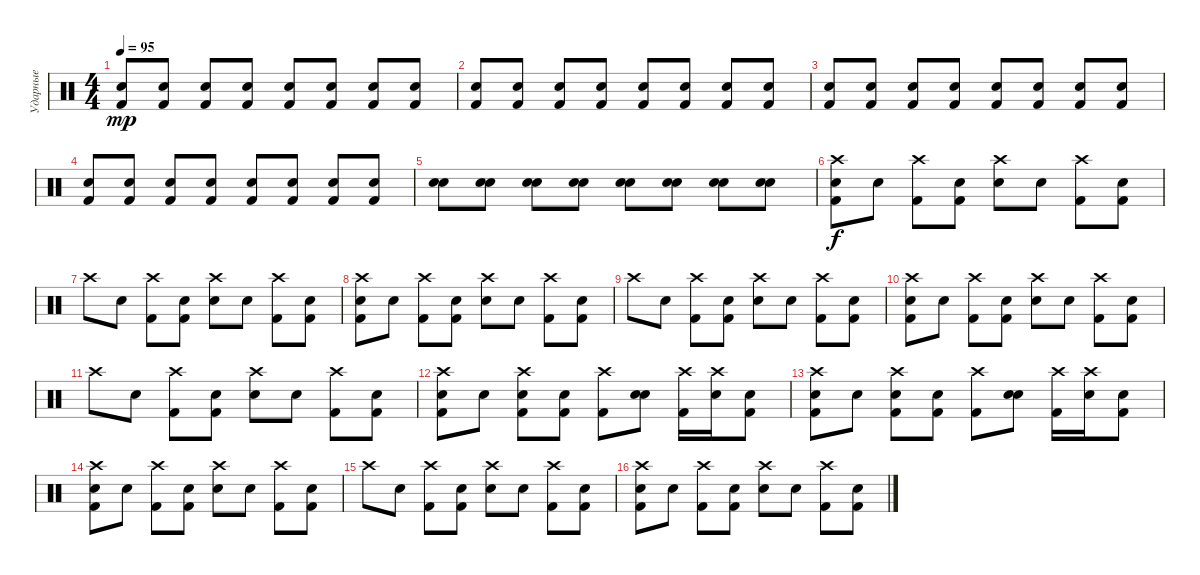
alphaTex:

\track ("Ударные" "Ударные") {instrument percussion}
\staff {score}
\articulation defaults
\ts (4 4)
\tempo 95
\clef neutral
\ks c
("Electric Snare (hit)" "Kick (hit) 2").8{dy mp} ("Electric Snare (hit)" "Kick (hit) 2").8 ("Electric Snare (hit)" "Kick (hit) 2").8 ("Electric Snare (hit)" "Kick (hit) 2").8 ("Electric Snare (hit)" "Kick (hit) 2").8 ("Electric Snare (hit)" "Kick (hit) 2").8 ("Electric Snare (hit)" "Kick (hit) 2").8 ("Electric Snare (hit)" "Kick (hit) 2").8 |
("Electric Snare (hit)" "Kick (hit) 2").8 ("Electric Snare (hit)" "Kick (hit) 2").8 ("Electric Snare (hit)" "Kick (hit) 2").8{volume 16} ("Electric Snare (hit)" "Kick (hit) 2").8 ("Electric Snare (hit)" "Kick (hit) 2").8 ("Electric Snare (hit)" "Kick (hit) 2").8 ("Electric Snare (hit)" "Kick (hit) 2").8 ("Electric Snare (hit)" "Kick (hit) 2").8 |
("Electric Snare (hit)" "Kick (hit) 2").8 ("Electric Snare (hit)" "Kick (hit) 2").8 ("Electric Snare (hit)" "Kick (hit) 2").8 ("Electric Snare (hit)" "Kick (hit) 2").8 ("Electric Snare (hit)" "Kick (hit) 2").8 ("Electric Snare (hit)" "Kick (hit) 2").8 ("Electric Snare (hit)" "Kick (hit) 2").8 ("Electric Snare (hit)" "Kick (hit) 2").8 |
("Electric Snare (hit)" "Kick (hit) 2").8 ("Electric Snare (hit)" "Kick (hit) 2").8 ("Electric Snare (hit)" "Kick (hit) 2").8 ("Electric Snare (hit)" "Kick (hit) 2").8 ("Electric Snare (hit)" "Kick (hit) 2").8 ("Electric Snare (hit)" "Kick (hit) 2").8 ("Electric Snare (hit)" "Kick (hit) 2").8 ("Electric Snare (hit)" "Kick (hit) 2").8 |
("Electric Snare (hit)" "Snare (hit) 2").8 ("Electric Snare (hit)" "Snare (hit) 2").8 ("Electric Snare (hit)" "Snare (hit) 2").8 ("Electric Snare (hit)" "Snare (hit) 2").8 ("Electric Snare (hit)" "Snare (hit) 2").8 ("Electric Snare (hit)" "Snare (hit) 2").8 ("Electric Snare (hit)" "Snare (hit) 2").8 ("Electric Snare (hit)" "Snare (hit) 2").8 |
("Crash high (hit)" "Kick (hit) 2" "Snare (hit) 2").8{dy f volume 16} "Snare (hit)".8 ("Crash high (hit)" "Kick (hit) 2").8 ("Snare (hit)" "Kick (hit) 2").8 ("Crash high (hit)" "Electric Snare (hit)").8 "Snare (hit)".8 ("Crash high (hit)" "Kick (hit) 2").8 ("Snare (hit)" "Kick (hit) 2").8 |
"Crash high (hit)".8 "Snare (hit)".8 ("Crash high (hit)" "Kick (hit) 2").8 ("Snare (hit)" "Kick (hit) 2").8 ("Crash high (hit)" "Electric Snare (hit)").8 "Snare (hit)".8 ("Crash high (hit)" "Kick (hit) 2").8 ("Snare (hit)" "Kick (hit) 2").8 |
("Crash high (hit)" "Kick (hit) 2" "Snare (hit) 2").8 "Snare (hit)".8 ("Crash high (hit)" "Kick (hit) 2").8 ("Snare (hit)" "Kick (hit) 2").8 ("Crash high (hit)" "Electric Snare (hit)").8 "Snare (hit)".8 ("Crash high (hit)" "Kick (hit) 2").8 ("Snare (hit)" "Kick (hit) 2").8 |
"Crash high (hit)".8 "Snare (hit)".8 ("Crash high (hit)" "Kick (hit) 2").8 ("Snare (hit)" "Kick (hit) 2").8 ("Crash high (hit)" "Electric Snare (hit)").8 "Snare (hit)".8 ("Crash high (hit)" "Kick (hit) 2").8 ("Snare (hit)" "Kick (hit) 2").8 |
("Crash high (hit)" "Kick (hit) 2" "Snare (hit) 2").8 "Snare (hit)".8 ("Crash high (hit)" "Kick (hit) 2").8 ("Snare (hit)" "Kick (hit) 2").8 ("Crash high (hit)" "Electric Snare (hit)").8 "Snare (hit)".8 ("Crash high (hit)" "Kick (hit) 2").8 ("Snare (hit)" "Kick (hit) 2").8 |
"Crash high (hit)".8 "Snare (hit)".8 ("Crash high (hit)" "Kick (hit) 2").8 ("Snare (hit)" "Kick (hit) 2").8 ("Crash high (hit)" "Electric Snare (hit)").8 "Snare (hit)".8 ("Crash high (hit)" "Kick (hit) 2").8 ("Snare (hit)" "Kick (hit) 2").8 |
("Crash high (hit)" "Kick (hit) 2" "Snare (hit) 2").8 "Snare (hit)".8 ("Crash high (hit)" "Kick (hit) 2" "Snare (hit) 2").8 ("Snare (hit)" "Kick (hit) 2").8 ("Crash high (hit)" "Kick (hit) 2").8 ("Snare (hit)" "Electric Snare (hit)").8 ("Crash high (hit)" "Kick (hit) 2").16 ("Crash high (hit)" "Electric Snare (hit)").16 ("Snare (hit)" "Kick (hit) 2").8 |
("Crash high (hit)" "Kick (hit) 2" "Snare (hit) 2").8 "Snare (hit)".8 ("Crash high (hit)" "Kick (hit) 2" "Snare (hit) 2").8 ("Snare (hit)" "Kick (hit) 2").8 ("Crash high (hit)" "Kick (hit) 2").8 ("Snare (hit)" "Electric Snare (hit)").8 ("Crash high (hit)" "Kick (hit) 2").16 ("Crash high (hit)" "Electric Snare (hit)").16 ("Snare (hit)" "Kick (hit) 2").8 |
("Crash high (hit)" "Kick (hit) 2" "Snare (hit) 2").8{volume 16} "Snare (hit)".8 ("Crash high (hit)" "Kick (hit) 2").8 ("Snare (hit)" "Kick (hit) 2").8 ("Crash high (hit)" "Electric Snare (hit)").8 "Snare (hit)".8 ("Crash high (hit)" "Kick (hit) 2").8 ("Snare (hit)" "Kick (hit) 2").8 |
"Crash high (hit)".8 "Snare (hit)".8 ("Crash high (hit)" "Kick (hit) 2").8 ("Snare (hit)" "Kick (hit) 2").8 ("Crash high (hit)" "Electric Snare (hit)").8 "Snare (hit)".8 ("Crash high (hit)" "Kick (hit) 2").8 ("Snare (hit)" "Kick (hit) 2").8 |
("Crash high (hit)" "Kick (hit) 2" "Snare (hit) 2").8 "Snare (hit)".8 ("Crash high (hit)" "Kick (hit) 2").8 ("Snare (hit)" "Kick (hit) 2").8 ("Crash high (hit)" "Electric Snare (hit)").8 "Snare (hit)".8 ("Crash high (hit)" "Kick (hit) 2").8 ("Snare (hit)" "Kick (hit) 2").8
